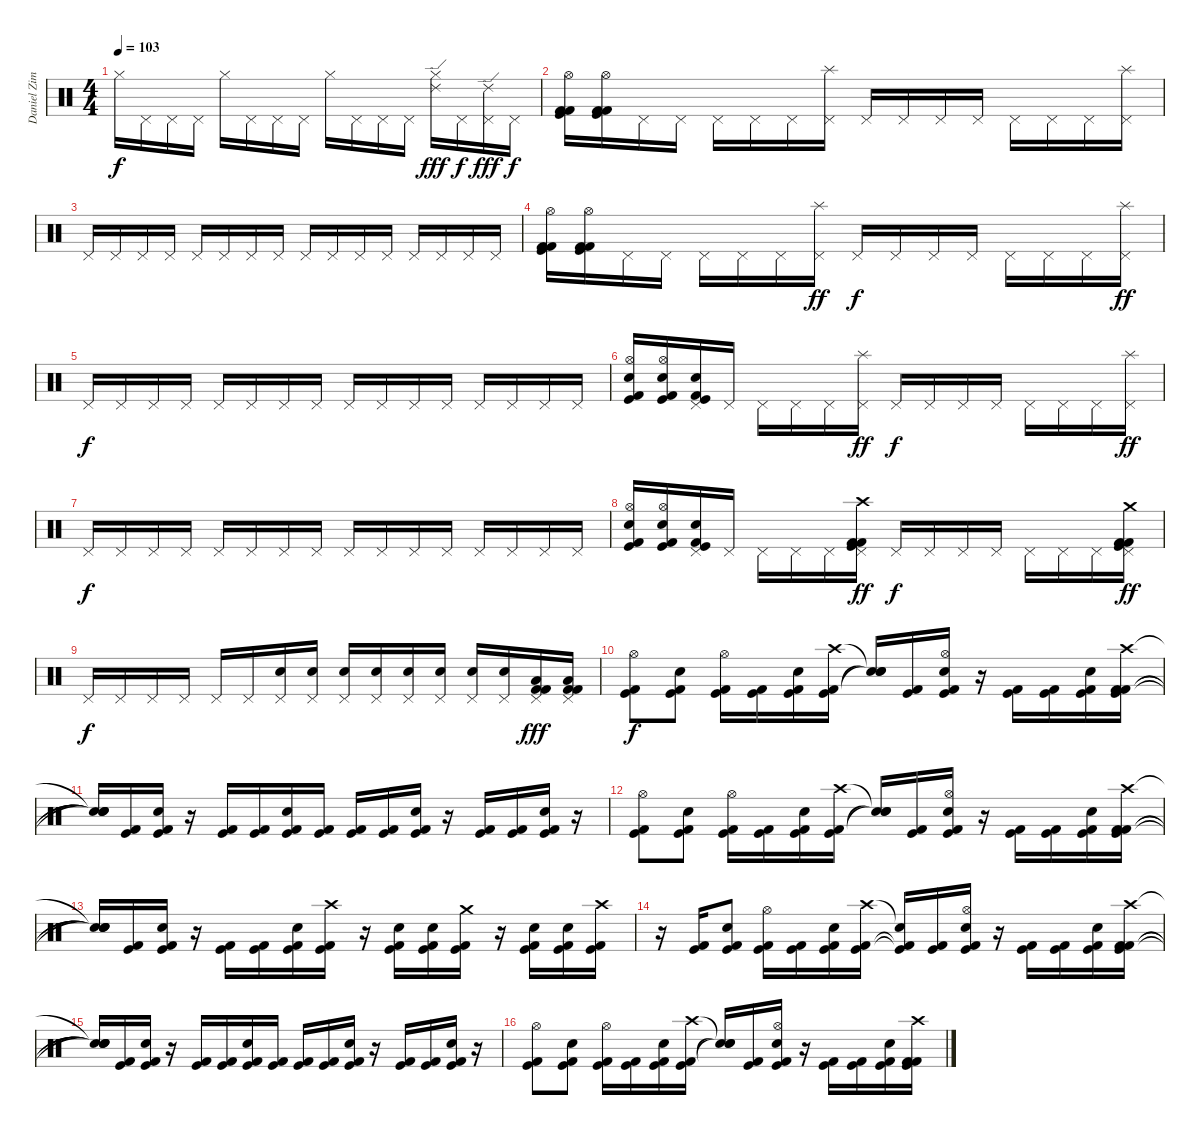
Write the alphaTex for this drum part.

\track ("Daniel Zimmermann - Drums" "Daniel Zim") {instrument percussion}
\staff {score}
\articulation defaults
\ts (4 4)
\tempo 103
\clef neutral
\ks c "Hi-Hat (closed)".16{dy f} "Pedal Hi-Hat (hit)".16 "Pedal Hi-Hat (hit)".16 "Pedal Hi-Hat (hit)".16 "Hi-Hat (closed)".16 "Pedal Hi-Hat (hit)".16 "Pedal Hi-Hat (hit)".16 "Pedal Hi-Hat (hit)".16 "Hi-Hat (closed)".16 "Pedal Hi-Hat (hit)".16 "Pedal Hi-Hat (hit)".16 "Pedal Hi-Hat (hit)".16
("Hi-Hat (closed)" "Ride (edge) 2").16{dy fff} "Pedal Hi-Hat (hit)".16{dy f} ("Pedal Hi-Hat (hit)" "Ride (edge) 2").16{dy fff} "Pedal Hi-Hat (hit)".16{dy f} |
("Kick (hit)" "Kick (hit) 2" "Kick (hit) 2" "Hi-Hat (open)").16 ("Kick (hit)" "Kick (hit) 2" "Kick (hit) 2" "Hi-Hat (open)").16 "Pedal Hi-Hat (hit)".16 "Pedal Hi-Hat (hit)".16 "Pedal Hi-Hat (hit)".16 "Pedal Hi-Hat (hit)".16 "Pedal Hi-Hat (hit)".16 ("Pedal Hi-Hat (hit)" "Splash (hit)").16 "Pedal Hi-Hat (hit)".16 "Pedal Hi-Hat (hit)".16 "Pedal Hi-Hat (hit)".16 "Pedal Hi-Hat (hit)".16 "Pedal Hi-Hat (hit)".16 "Pedal Hi-Hat (hit)".16 "Pedal Hi-Hat (hit)".16 ("Pedal Hi-Hat (hit)" "Splash (hit)").16 |
"Pedal Hi-Hat (hit)".16 "Pedal Hi-Hat (hit)".16 "Pedal Hi-Hat (hit)".16 "Pedal Hi-Hat (hit)".16 "Pedal Hi-Hat (hit)".16 "Pedal Hi-Hat (hit)".16 "Pedal Hi-Hat (hit)".16 "Pedal Hi-Hat (hit)".16 "Pedal Hi-Hat (hit)".16 "Pedal Hi-Hat (hit)".16 "Pedal Hi-Hat (hit)".16 "Pedal Hi-Hat (hit)".16 "Pedal Hi-Hat (hit)".16 "Pedal Hi-Hat (hit)".16 "Pedal Hi-Hat (hit)".16 "Pedal Hi-Hat (hit)".16 |
("Kick (hit)" "Kick (hit) 2" "Kick (hit) 2" "Hi-Hat (open)").16 ("Kick (hit)" "Kick (hit) 2" "Kick (hit) 2" "Hi-Hat (open)").16 "Pedal Hi-Hat (hit)".16 "Pedal Hi-Hat (hit)".16 "Pedal Hi-Hat (hit)".16 "Pedal Hi-Hat (hit)".16 "Pedal Hi-Hat (hit)".16 ("Pedal Hi-Hat (hit)" "Splash (hit)").16{dy ff} "Pedal Hi-Hat (hit)".16{dy f} "Pedal Hi-Hat (hit)".16 "Pedal Hi-Hat (hit)".16 "Pedal Hi-Hat (hit)".16 "Pedal Hi-Hat (hit)".16 "Pedal Hi-Hat (hit)".16 "Pedal Hi-Hat (hit)".16 ("Pedal Hi-Hat (hit)" "Splash (hit)").16{dy ff} |
"Pedal Hi-Hat (hit)".16{dy f} "Pedal Hi-Hat (hit)".16 "Pedal Hi-Hat (hit)".16 "Pedal Hi-Hat (hit)".16 "Pedal Hi-Hat (hit)".16 "Pedal Hi-Hat (hit)".16 "Pedal Hi-Hat (hit)".16 "Pedal Hi-Hat (hit)".16 "Pedal Hi-Hat (hit)".16 "Pedal Hi-Hat (hit)".16 "Pedal Hi-Hat (hit)".16 "Pedal Hi-Hat (hit)".16 "Pedal Hi-Hat (hit)".16 "Pedal Hi-Hat (hit)".16 "Pedal Hi-Hat (hit)".16 "Pedal Hi-Hat (hit)".16 |
("Kick (hit)" "Kick (hit) 2" "Electric Snare (hit)" "Hi-Hat (open)").16 ("Kick (hit)" "Kick (hit) 2" "Electric Snare (hit)" "Hi-Hat (open)").16 ("Kick (hit)" "Kick (hit) 2" "Electric Snare (hit)" "Pedal Hi-Hat (hit)").16 "Pedal Hi-Hat (hit)".16 "Pedal Hi-Hat (hit)".16 "Pedal Hi-Hat (hit)".16 "Pedal Hi-Hat (hit)".16 ("Pedal Hi-Hat (hit)" "Splash (hit)").16{dy ff} "Pedal Hi-Hat (hit)".16{dy f} "Pedal Hi-Hat (hit)".16 "Pedal Hi-Hat (hit)".16 "Pedal Hi-Hat (hit)".16 "Pedal Hi-Hat (hit)".16 "Pedal Hi-Hat (hit)".16 "Pedal Hi-Hat (hit)".16 ("Pedal Hi-Hat (hit)" "Splash (hit)").16{dy ff} |
"Pedal Hi-Hat (hit)".16{dy f} "Pedal Hi-Hat (hit)".16 "Pedal Hi-Hat (hit)".16 "Pedal Hi-Hat (hit)".16 "Pedal Hi-Hat (hit)".16 "Pedal Hi-Hat (hit)".16 "Pedal Hi-Hat (hit)".16 "Pedal Hi-Hat (hit)".16 "Pedal Hi-Hat (hit)".16 "Pedal Hi-Hat (hit)".16 "Pedal Hi-Hat (hit)".16 "Pedal Hi-Hat (hit)".16 "Pedal Hi-Hat (hit)".16 "Pedal Hi-Hat (hit)".16 "Pedal Hi-Hat (hit)".16 "Pedal Hi-Hat (hit)".16 |
("Kick (hit)" "Kick (hit) 2" "Electric Snare (hit)" "Hi-Hat (open)").16 ("Kick (hit)" "Kick (hit) 2" "Electric Snare (hit)" "Hi-Hat (open)").16 ("Kick (hit)" "Kick (hit) 2" "Electric Snare (hit)" "Pedal Hi-Hat (hit)").16 "Pedal Hi-Hat (hit)".16 "Pedal Hi-Hat (hit)".16 "Pedal Hi-Hat (hit)".16 "Pedal Hi-Hat (hit)".16 ("Kick (hit)" "Kick (hit) 2" "Kick (hit) 2" "Pedal Hi-Hat (hit)" "Crash high (hit)").16{dy ff} "Pedal Hi-Hat (hit)".16{dy f} "Pedal Hi-Hat (hit)".16 "Pedal Hi-Hat (hit)".16 "Pedal Hi-Hat (hit)".16 "Pedal Hi-Hat (hit)".16 "Pedal Hi-Hat (hit)".16 "Pedal Hi-Hat (hit)".16 ("Kick (hit)" "Kick (hit) 2" "Kick (hit) 2" "Pedal Hi-Hat (hit)" "Crash medium (hit)").16{dy ff} |
"Pedal Hi-Hat (hit)".16{dy f} "Pedal Hi-Hat (hit)".16 "Pedal Hi-Hat (hit)".16 "Pedal Hi-Hat (hit)".16 "Pedal Hi-Hat (hit)".16 "Pedal Hi-Hat (hit)".16 ("Pedal Hi-Hat (hit)" "Electric Snare (hit)").16 ("Pedal Hi-Hat (hit)" "Electric Snare (hit)").16 ("Pedal Hi-Hat (hit)" "Electric Snare (hit)").16 ("Pedal Hi-Hat (hit)" "Electric Snare (hit)").16 ("Pedal Hi-Hat (hit)" "Electric Snare (hit)").16 ("Pedal Hi-Hat (hit)" "Electric Snare (hit)").16 ("Pedal Hi-Hat (hit)" "Electric Snare (hit)").16 ("Pedal Hi-Hat (hit)" "Electric Snare (hit)").16 ("Kick (hit) 2" "Kick (hit) 2" "Pedal Hi-Hat (hit)" "Low Tom (hit)").16{dy fff} ("Kick (hit) 2" "Kick (hit) 2" "Pedal Hi-Hat (hit)" "Low Tom (hit)").16 |
("Kick (hit)" "Kick (hit) 2" "Hi-Hat (open)").8{dy f} ("Kick (hit)" "Kick (hit) 2" "Electric Snare (hit)").8 ("Kick (hit)" "Kick (hit) 2" "Hi-Hat (open)").16 ("Kick (hit)" "Kick (hit) 2").16 ("Kick (hit)" "Kick (hit) 2" "Electric Snare (hit)").16 ("Kick (hit)" "Kick (hit) 2" "Crash high (hit)").16 ("Snare (hit)"{t} "Snare (hit)"{t} "Snare (hit)"{t}).16 ("Kick (hit)" "Kick (hit) 2").16 ("Kick (hit)" "Kick (hit) 2" "Electric Snare (hit)" "Hi-Hat (open)").16 r.16 ("Kick (hit)" "Kick (hit) 2").16 ("Kick (hit)" "Kick (hit) 2").16 ("Kick (hit)" "Kick (hit) 2" "Electric Snare (hit)").16 ("Kick (hit)" "Kick (hit) 2" "Kick (hit) 2" "Crash high (hit)").16 |
("Snare (hit)"{t} "Snare (hit)"{t} "Snare (hit)"{t} "Snare (hit)"{t}).16 ("Kick (hit)" "Kick (hit) 2").16 ("Kick (hit)" "Kick (hit) 2" "Electric Snare (hit)").16 r.16 ("Kick (hit)" "Kick (hit) 2").16 ("Kick (hit)" "Kick (hit) 2").16 ("Kick (hit)" "Kick (hit) 2" "Electric Snare (hit)").16 ("Kick (hit)" "Kick (hit) 2").16 ("Kick (hit)" "Kick (hit) 2").16 ("Kick (hit)" "Kick (hit) 2").16 ("Kick (hit)" "Kick (hit) 2" "Electric Snare (hit)").16 r.16 ("Kick (hit)" "Kick (hit) 2").16 ("Kick (hit)" "Kick (hit) 2").16 ("Kick (hit)" "Kick (hit) 2" "Electric Snare (hit)").16 r.16 |
("Kick (hit)" "Kick (hit) 2" "Hi-Hat (open)").8 ("Kick (hit)" "Kick (hit) 2" "Electric Snare (hit)").8 ("Kick (hit)" "Kick (hit) 2" "Hi-Hat (open)").16 ("Kick (hit)" "Kick (hit) 2").16 ("Kick (hit)" "Kick (hit) 2" "Electric Snare (hit)").16 ("Kick (hit)" "Kick (hit) 2" "Crash high (hit)").16 ("Snare (hit)"{t} "Snare (hit)"{t} "Snare (hit)"{t}).16 ("Kick (hit)" "Kick (hit) 2").16 ("Kick (hit)" "Kick (hit) 2" "Electric Snare (hit)" "Hi-Hat (open)").16 r.16 ("Kick (hit)" "Kick (hit) 2").16 ("Kick (hit)" "Kick (hit) 2").16 ("Kick (hit)" "Kick (hit) 2" "Electric Snare (hit)").16 ("Kick (hit)" "Kick (hit) 2" "Kick (hit) 2" "Crash high (hit)").16 |
("Snare (hit)"{t} "Snare (hit)"{t} "Snare (hit)"{t} "Snare (hit)"{t}).16 ("Kick (hit)" "Kick (hit) 2").16 ("Kick (hit)" "Kick (hit) 2" "Electric Snare (hit)").16 r.16 ("Kick (hit)" "Kick (hit) 2").16 ("Kick (hit)" "Kick (hit) 2").16 ("Kick (hit)" "Kick (hit) 2" "Electric Snare (hit)").16 ("Kick (hit)" "Kick (hit) 2" "Crash high (hit)").16 r.16 ("Kick (hit)" "Kick (hit) 2" "Electric Snare (hit)").16 ("Kick (hit)" "Kick (hit) 2" "Electric Snare (hit)").16 ("Kick (hit)" "Kick (hit) 2" "Crash medium (hit)").16 r.16 ("Kick (hit)" "Kick (hit) 2" "Electric Snare (hit)").16 ("Kick (hit)" "Kick (hit) 2" "Electric Snare (hit)").16 ("Kick (hit)" "Kick (hit) 2" "Crash high (hit)").16 |
r.16 ("Kick (hit)" "Kick (hit) 2").16 ("Kick (hit)" "Kick (hit) 2" "Electric Snare (hit)").8 ("Kick (hit)" "Kick (hit) 2" "Hi-Hat (open)").16 ("Kick (hit)" "Kick (hit) 2").16 ("Kick (hit)" "Kick (hit) 2" "Electric Snare (hit)").16 ("Kick (hit)" "Kick (hit) 2" "Crash high (hit)").16 ("Kick (hit)"{t} "Kick (hit) 2"{t} "Snare (hit)"{t}).16 ("Kick (hit)" "Kick (hit) 2").16 ("Kick (hit)" "Kick (hit) 2" "Electric Snare (hit)" "Hi-Hat (open)").16 r.16 ("Kick (hit)" "Kick (hit) 2").16 ("Kick (hit)" "Kick (hit) 2").16 ("Kick (hit)" "Kick (hit) 2" "Electric Snare (hit)").16 ("Kick (hit)" "Kick (hit) 2" "Kick (hit) 2" "Crash high (hit)").16 |
("Snare (hit)"{t} "Snare (hit)"{t} "Snare (hit)"{t} "Snare (hit)"{t}).16 ("Kick (hit)" "Kick (hit) 2").16 ("Kick (hit)" "Kick (hit) 2" "Electric Snare (hit)").16 r.16 ("Kick (hit)" "Kick (hit) 2").16 ("Kick (hit)" "Kick (hit) 2").16 ("Kick (hit)" "Kick (hit) 2" "Electric Snare (hit)").16 ("Kick (hit)" "Kick (hit) 2").16 ("Kick (hit)" "Kick (hit) 2").16 ("Kick (hit)" "Kick (hit) 2").16 ("Kick (hit)" "Kick (hit) 2" "Electric Snare (hit)").16 r.16 ("Kick (hit)" "Kick (hit) 2").16 ("Kick (hit)" "Kick (hit) 2").16 ("Kick (hit)" "Kick (hit) 2" "Electric Snare (hit)").16 r.16 |
("Kick (hit)" "Kick (hit) 2" "Hi-Hat (open)").8 ("Kick (hit)" "Kick (hit) 2" "Electric Snare (hit)").8 ("Kick (hit)" "Kick (hit) 2" "Hi-Hat (open)").16 ("Kick (hit)" "Kick (hit) 2").16 ("Kick (hit)" "Kick (hit) 2" "Electric Snare (hit)").16 ("Kick (hit)" "Kick (hit) 2" "Crash high (hit)").16 ("Snare (hit)"{t} "Snare (hit)"{t} "Snare (hit)"{t}).16 ("Kick (hit)" "Kick (hit) 2").16 ("Kick (hit)" "Kick (hit) 2" "Electric Snare (hit)" "Hi-Hat (open)").16 r.16 ("Kick (hit)" "Kick (hit) 2").16 ("Kick (hit)" "Kick (hit) 2").16 ("Kick (hit)" "Kick (hit) 2" "Electric Snare (hit)").16 ("Kick (hit)" "Kick (hit) 2" "Kick (hit) 2" "Crash high (hit)").16
